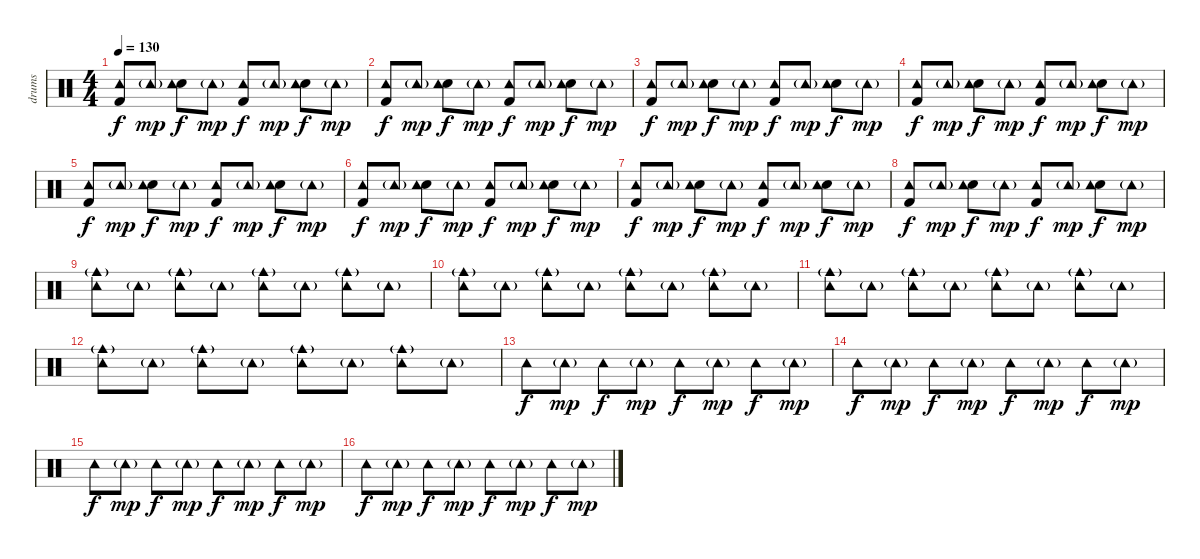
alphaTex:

\track ("drums" "drums") {instrument percussion}
\staff {score}
\articulation defaults
\ts (4 4)
\tempo 130
\clef neutral
\ks c
("Kick (hit) 2" "Tambourine (hit)").8{dy f} "Tambourine (hit)"{g}.8{dy mp} ("Electric Snare (hit)" "Tambourine (hit)").8{dy f} "Tambourine (hit)"{g}.8{dy mp} ("Kick (hit) 2" "Tambourine (hit)").8{dy f} "Tambourine (hit)"{g}.8{dy mp} ("Electric Snare (hit)" "Tambourine (hit)").8{dy f} "Tambourine (hit)"{g}.8{dy mp} |
("Kick (hit) 2" "Tambourine (hit)").8{dy f} "Tambourine (hit)"{g}.8{dy mp} ("Electric Snare (hit)" "Tambourine (hit)").8{dy f} "Tambourine (hit)"{g}.8{dy mp} ("Kick (hit) 2" "Tambourine (hit)").8{dy f} "Tambourine (hit)"{g}.8{dy mp} ("Electric Snare (hit)" "Tambourine (hit)").8{dy f} "Tambourine (hit)"{g}.8{dy mp} |
("Kick (hit) 2" "Tambourine (hit)").8{dy f} "Tambourine (hit)"{g}.8{dy mp} ("Electric Snare (hit)" "Tambourine (hit)").8{dy f} "Tambourine (hit)"{g}.8{dy mp} ("Kick (hit) 2" "Tambourine (hit)").8{dy f} "Tambourine (hit)"{g}.8{dy mp} ("Electric Snare (hit)" "Tambourine (hit)").8{dy f} "Tambourine (hit)"{g}.8{dy mp} |
("Kick (hit) 2" "Tambourine (hit)").8{dy f} "Tambourine (hit)"{g}.8{dy mp} ("Electric Snare (hit)" "Tambourine (hit)").8{dy f} "Tambourine (hit)"{g}.8{dy mp} ("Kick (hit) 2" "Tambourine (hit)").8{dy f} "Tambourine (hit)"{g}.8{dy mp} ("Electric Snare (hit)" "Tambourine (hit)").8{dy f} "Tambourine (hit)"{g}.8{dy mp} |
("Kick (hit) 2" "Tambourine (hit)").8{dy f} "Tambourine (hit)"{g}.8{dy mp} ("Electric Snare (hit)" "Tambourine (hit)").8{dy f} "Tambourine (hit)"{g}.8{dy mp} ("Kick (hit) 2" "Tambourine (hit)").8{dy f} "Tambourine (hit)"{g}.8{dy mp} ("Electric Snare (hit)" "Tambourine (hit)").8{dy f} "Tambourine (hit)"{g}.8{dy mp} |
("Kick (hit) 2" "Tambourine (hit)").8{dy f} "Tambourine (hit)"{g}.8{dy mp} ("Electric Snare (hit)" "Tambourine (hit)").8{dy f} "Tambourine (hit)"{g}.8{dy mp} ("Kick (hit) 2" "Tambourine (hit)").8{dy f} "Tambourine (hit)"{g}.8{dy mp} ("Electric Snare (hit)" "Tambourine (hit)").8{dy f} "Tambourine (hit)"{g}.8{dy mp} |
("Kick (hit) 2" "Tambourine (hit)").8{dy f} "Tambourine (hit)"{g}.8{dy mp} ("Electric Snare (hit)" "Tambourine (hit)").8{dy f} "Tambourine (hit)"{g}.8{dy mp} ("Kick (hit) 2" "Tambourine (hit)").8{dy f} "Tambourine (hit)"{g}.8{dy mp} ("Electric Snare (hit)" "Tambourine (hit)").8{dy f} "Tambourine (hit)"{g}.8{dy mp} |
("Kick (hit) 2" "Tambourine (hit)").8{dy f} "Tambourine (hit)"{g}.8{dy mp} ("Electric Snare (hit)" "Tambourine (hit)").8{dy f} "Tambourine (hit)"{g}.8{dy mp} ("Kick (hit) 2" "Tambourine (hit)").8{dy f} "Tambourine (hit)"{g}.8{dy mp} ("Electric Snare (hit)" "Tambourine (hit)").8{dy f} "Tambourine (hit)"{g}.8{dy mp} |
("Cowbell medium (hit)"{g} "Tambourine (hit)").8 "Tambourine (hit)"{g}.8 ("Cowbell medium (hit)"{g} "Tambourine (hit)").8 "Tambourine (hit)"{g}.8 ("Cowbell medium (hit)"{g} "Tambourine (hit)").8 "Tambourine (hit)"{g}.8 ("Cowbell medium (hit)"{g} "Tambourine (hit)").8 "Tambourine (hit)"{g}.8 |
("Cowbell medium (hit)"{g} "Tambourine (hit)").8 "Tambourine (hit)"{g}.8 ("Cowbell medium (hit)"{g} "Tambourine (hit)").8 "Tambourine (hit)"{g}.8 ("Cowbell medium (hit)"{g} "Tambourine (hit)").8 "Tambourine (hit)"{g}.8 ("Cowbell medium (hit)"{g} "Tambourine (hit)").8 "Tambourine (hit)"{g}.8 |
("Cowbell medium (hit)"{g} "Tambourine (hit)").8 "Tambourine (hit)"{g}.8 ("Cowbell medium (hit)"{g} "Tambourine (hit)").8 "Tambourine (hit)"{g}.8 ("Cowbell medium (hit)"{g} "Tambourine (hit)").8 "Tambourine (hit)"{g}.8 ("Cowbell medium (hit)"{g} "Tambourine (hit)").8 "Tambourine (hit)"{g}.8 |
("Cowbell medium (hit)"{g} "Tambourine (hit)").8 "Tambourine (hit)"{g}.8 ("Cowbell medium (hit)"{g} "Tambourine (hit)").8 "Tambourine (hit)"{g}.8 ("Cowbell medium (hit)"{g} "Tambourine (hit)").8 "Tambourine (hit)"{g}.8 ("Cowbell medium (hit)"{g} "Tambourine (hit)").8 "Tambourine (hit)"{g}.8 |
"Tambourine (hit)".8{dy f} "Tambourine (hit)"{g}.8{dy mp} "Tambourine (hit)".8{dy f} "Tambourine (hit)"{g}.8{dy mp} "Tambourine (hit)".8{dy f} "Tambourine (hit)"{g}.8{dy mp} "Tambourine (hit)".8{dy f} "Tambourine (hit)"{g}.8{dy mp} |
"Tambourine (hit)".8{dy f} "Tambourine (hit)"{g}.8{dy mp} "Tambourine (hit)".8{dy f} "Tambourine (hit)"{g}.8{dy mp} "Tambourine (hit)".8{dy f} "Tambourine (hit)"{g}.8{dy mp} "Tambourine (hit)".8{dy f} "Tambourine (hit)"{g}.8{dy mp} |
"Tambourine (hit)".8{dy f} "Tambourine (hit)"{g}.8{dy mp} "Tambourine (hit)".8{dy f} "Tambourine (hit)"{g}.8{dy mp} "Tambourine (hit)".8{dy f} "Tambourine (hit)"{g}.8{dy mp} "Tambourine (hit)".8{dy f} "Tambourine (hit)"{g}.8{dy mp} |
"Tambourine (hit)".8{dy f} "Tambourine (hit)"{g}.8{dy mp} "Tambourine (hit)".8{dy f} "Tambourine (hit)"{g}.8{dy mp} "Tambourine (hit)".8{dy f} "Tambourine (hit)"{g}.8{dy mp} "Tambourine (hit)".8{dy f} "Tambourine (hit)"{g}.8{dy mp}
